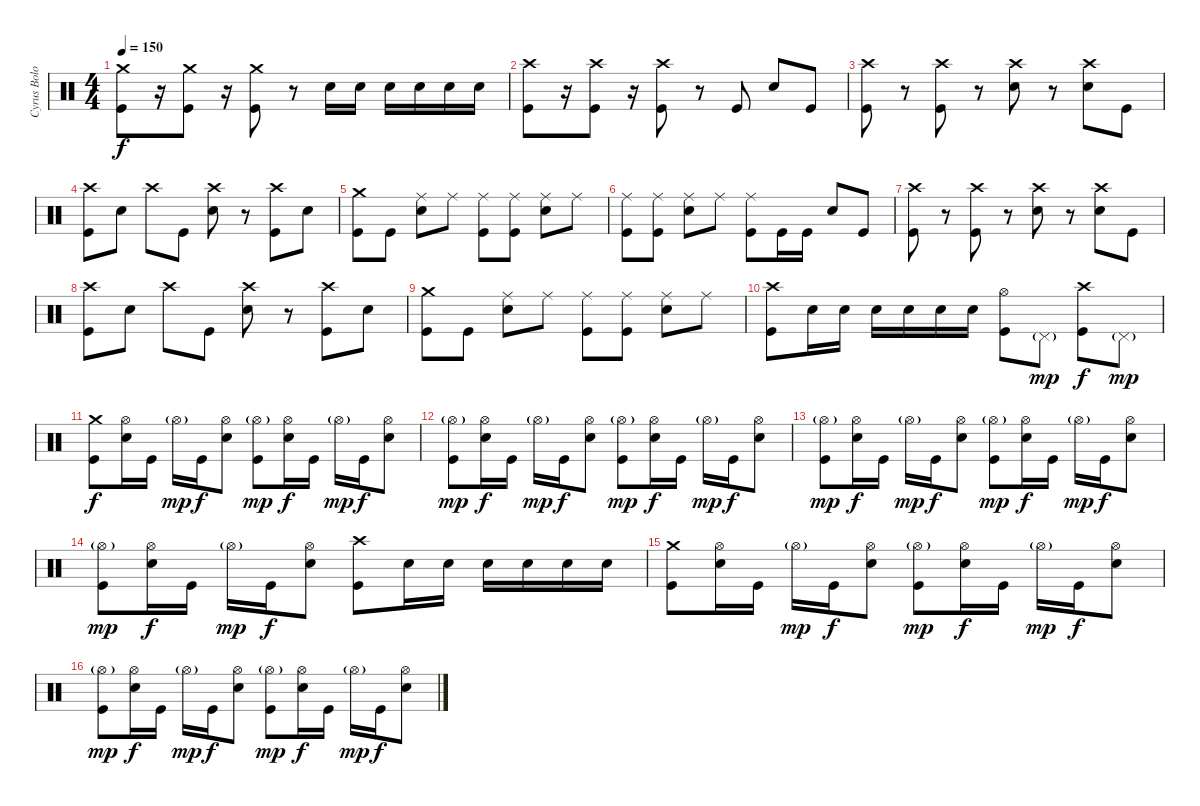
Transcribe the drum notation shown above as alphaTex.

\track ("Cyrus Bolooki - Drums" "Cyrus Bolo") {instrument percussion}
\staff {score}
\articulation defaults
\ts (4 4)
\tempo 150
\clef neutral
\ks c
("Crash medium (hit)" "Kick (hit)").8{dy f} r.16 ("Crash medium (hit)" "Kick (hit)").8 r.16 ("Crash medium (hit)" "Kick (hit)").8 r.8 "Electric Snare (hit)".16 "Electric Snare (hit)".16 "Electric Snare (hit)".16 "Electric Snare (hit)".16 "Electric Snare (hit)".16 "Electric Snare (hit)".16 |
("Crash high (hit)" "Kick (hit)").8 r.16 ("Crash high (hit)" "Kick (hit)").8 r.16 ("Crash high (hit)" "Kick (hit)").8 r.8 "Kick (hit)".8 "Electric Snare (hit)".8 "Kick (hit)".8 |
("Crash high (hit)" "Kick (hit)").8 r.8 ("Crash high (hit)" "Kick (hit)").8 r.8 ("Crash high (hit)" "Electric Snare (hit)").8 r.8 ("Crash high (hit)" "Electric Snare (hit)").8 "Kick (hit)".8 |
("Crash high (hit)" "Kick (hit)").8 "Electric Snare (hit)".8 "Crash high (hit)".8 "Kick (hit)".8 ("Crash high (hit)" "Electric Snare (hit)").8 r.8 ("Crash high (hit)" "Kick (hit)").8 "Electric Snare (hit)".8 |
("Crash medium (hit)" "Kick (hit)").8 "Kick (hit)".8 ("Ride (middle)" "Electric Snare (hit)").8 "Ride (middle)".8 ("Ride (middle)" "Kick (hit)").8 ("Ride (middle)" "Kick (hit)").8 ("Ride (middle)" "Electric Snare (hit)").8 "Ride (middle)".8 |
("Ride (middle)" "Kick (hit)").8 ("Ride (middle)" "Kick (hit)").8 ("Ride (middle)" "Electric Snare (hit)").8 "Ride (middle)".8 ("Ride (middle)" "Kick (hit)").8 "Kick (hit)".16 "Kick (hit)".16 "Electric Snare (hit)".8 "Kick (hit)".8 |
("Crash high (hit)" "Kick (hit)").8 r.8 ("Crash high (hit)" "Kick (hit)").8 r.8 ("Crash high (hit)" "Electric Snare (hit)").8 r.8 ("Crash high (hit)" "Electric Snare (hit)").8 "Kick (hit)".8 |
("Crash high (hit)" "Kick (hit)").8 "Electric Snare (hit)".8 "Crash high (hit)".8 "Kick (hit)".8 ("Crash high (hit)" "Electric Snare (hit)").8 r.8 ("Crash high (hit)" "Kick (hit)").8 "Electric Snare (hit)".8 |
("Crash medium (hit)" "Kick (hit)").8 "Kick (hit)".8 ("Ride (middle)" "Electric Snare (hit)").8 "Ride (middle)".8 ("Ride (middle)" "Kick (hit)").8 ("Ride (middle)" "Kick (hit)").8 ("Ride (middle)" "Electric Snare (hit)").8 "Ride (middle)".8 |
("Crash high (hit)" "Kick (hit)").8 "Electric Snare (hit)".16 "Electric Snare (hit)".16 "Electric Snare (hit)".16 "Electric Snare (hit)".16 "Electric Snare (hit)".16 "Electric Snare (hit)".16 ("Hi-Hat (open)" "Kick (hit)").8 "Pedal Hi-Hat (hit)"{g}.8{dy mp} ("Crash high (hit)" "Kick (hit)").8{dy f} "Pedal Hi-Hat (hit)"{g}.8{dy mp} |
("Crash medium (hit)" "Kick (hit)").8{dy f} ("Hi-Hat (open)" "Electric Snare (hit)").16 "Kick (hit)".16 "Hi-Hat (open)"{g}.16{dy mp} "Kick (hit)".16{dy f} ("Hi-Hat (open)" "Electric Snare (hit)").8 ("Hi-Hat (open)"{g} "Kick (hit)").8{dy mp} ("Hi-Hat (open)" "Electric Snare (hit)").16{dy f} "Kick (hit)".16 "Hi-Hat (open)"{g}.16{dy mp} "Kick (hit)".16{dy f} ("Hi-Hat (open)" "Electric Snare (hit)").8 |
("Hi-Hat (open)"{g} "Kick (hit)").8{dy mp} ("Hi-Hat (open)" "Electric Snare (hit)").16{dy f} "Kick (hit)".16 "Hi-Hat (open)"{g}.16{dy mp} "Kick (hit)".16{dy f} ("Hi-Hat (open)" "Electric Snare (hit)").8 ("Hi-Hat (open)"{g} "Kick (hit)").8{dy mp} ("Hi-Hat (open)" "Electric Snare (hit)").16{dy f} "Kick (hit)".16 "Hi-Hat (open)"{g}.16{dy mp} "Kick (hit)".16{dy f} ("Hi-Hat (open)" "Electric Snare (hit)").8 |
("Hi-Hat (open)"{g} "Kick (hit)").8{dy mp} ("Hi-Hat (open)" "Electric Snare (hit)").16{dy f} "Kick (hit)".16 "Hi-Hat (open)"{g}.16{dy mp} "Kick (hit)".16{dy f} ("Hi-Hat (open)" "Electric Snare (hit)").8 ("Hi-Hat (open)"{g} "Kick (hit)").8{dy mp} ("Hi-Hat (open)" "Electric Snare (hit)").16{dy f} "Kick (hit)".16 "Hi-Hat (open)"{g}.16{dy mp} "Kick (hit)".16{dy f} ("Hi-Hat (open)" "Electric Snare (hit)").8 |
("Hi-Hat (open)"{g} "Kick (hit)").8{dy mp} ("Hi-Hat (open)" "Electric Snare (hit)").16{dy f} "Kick (hit)".16 "Hi-Hat (open)"{g}.16{dy mp} "Kick (hit)".16{dy f} ("Hi-Hat (open)" "Electric Snare (hit)").8 ("Crash high (hit)" "Kick (hit)").8 "Electric Snare (hit)".16 "Electric Snare (hit)".16 "Electric Snare (hit)".16 "Electric Snare (hit)".16 "Electric Snare (hit)".16 "Electric Snare (hit)".16 |
("Crash medium (hit)" "Kick (hit)").8 ("Hi-Hat (open)" "Electric Snare (hit)").16 "Kick (hit)".16 "Hi-Hat (open)"{g}.16{dy mp} "Kick (hit)".16{dy f} ("Hi-Hat (open)" "Electric Snare (hit)").8 ("Hi-Hat (open)"{g} "Kick (hit)").8{dy mp} ("Hi-Hat (open)" "Electric Snare (hit)").16{dy f} "Kick (hit)".16 "Hi-Hat (open)"{g}.16{dy mp} "Kick (hit)".16{dy f} ("Hi-Hat (open)" "Electric Snare (hit)").8 |
("Hi-Hat (open)"{g} "Kick (hit)").8{dy mp} ("Hi-Hat (open)" "Electric Snare (hit)").16{dy f} "Kick (hit)".16 "Hi-Hat (open)"{g}.16{dy mp} "Kick (hit)".16{dy f} ("Hi-Hat (open)" "Electric Snare (hit)").8 ("Hi-Hat (open)"{g} "Kick (hit)").8{dy mp} ("Hi-Hat (open)" "Electric Snare (hit)").16{dy f} "Kick (hit)".16 "Hi-Hat (open)"{g}.16{dy mp} "Kick (hit)".16{dy f} ("Hi-Hat (open)" "Electric Snare (hit)").8
